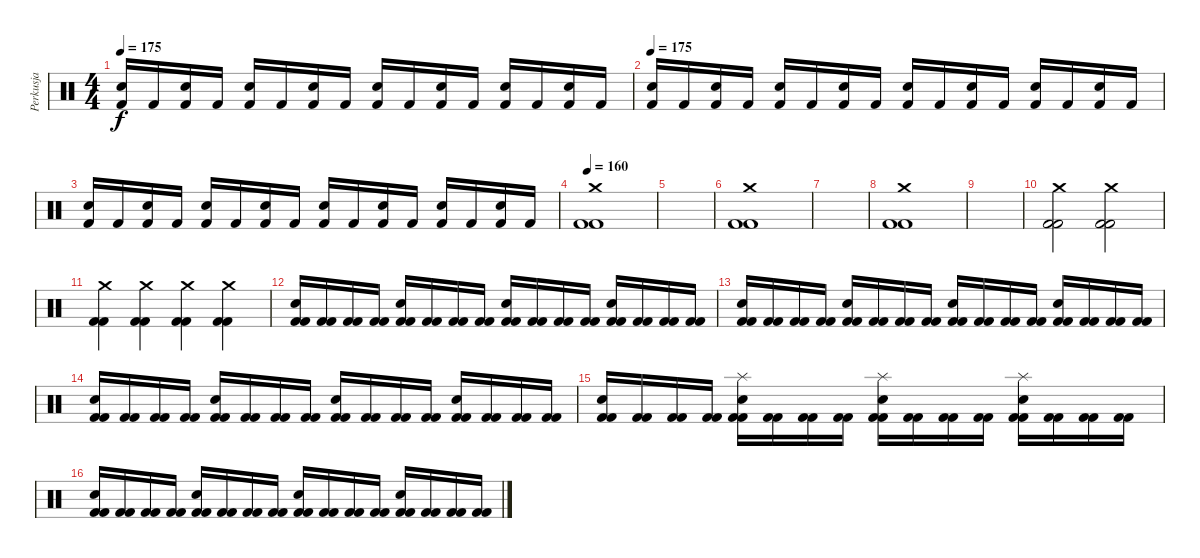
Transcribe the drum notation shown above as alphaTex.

\track ("Perkusja" "Perkusja") {instrument percussion}
\staff {score}
\articulation defaults
\ts (4 4)
\tempo 175
\clef neutral
\ks c
("Electric Snare (hit)" "Kick (hit) 2").16{dy f} "Kick (hit) 2".16 ("Snare (hit) 2" "Kick (hit) 2").16 "Kick (hit) 2".16 ("Snare (hit) 2" "Kick (hit) 2").16 "Kick (hit) 2".16 ("Snare (hit) 2" "Kick (hit) 2").16 "Kick (hit) 2".16 ("Snare (hit) 2" "Kick (hit) 2").16 "Kick (hit) 2".16 ("Snare (hit) 2" "Kick (hit) 2").16 "Kick (hit) 2".16 ("Snare (hit) 2" "Kick (hit) 2").16 "Kick (hit) 2".16 ("Snare (hit) 2" "Kick (hit) 2").16 "Kick (hit) 2".16 |
\tempo 175
("Electric Snare (hit)" "Kick (hit) 2").16 "Kick (hit) 2".16 ("Snare (hit) 2" "Kick (hit) 2").16 "Kick (hit) 2".16 ("Snare (hit) 2" "Kick (hit) 2").16 "Kick (hit) 2".16 ("Snare (hit) 2" "Kick (hit) 2").16 "Kick (hit) 2".16 ("Snare (hit) 2" "Kick (hit) 2").16 "Kick (hit) 2".16 ("Snare (hit) 2" "Kick (hit) 2").16 "Kick (hit) 2".16 ("Snare (hit) 2" "Kick (hit) 2").16 "Kick (hit) 2".16 ("Snare (hit) 2" "Kick (hit) 2").16 "Kick (hit) 2".16 |
("Snare (hit) 2" "Kick (hit) 2").16 "Kick (hit) 2".16 ("Snare (hit) 2" "Kick (hit) 2").16 "Kick (hit) 2".16 ("Snare (hit) 2" "Kick (hit) 2").16 "Kick (hit) 2".16 ("Snare (hit) 2" "Kick (hit) 2").16 "Kick (hit) 2".16 ("Snare (hit) 2" "Kick (hit) 2").16 "Kick (hit) 2".16 ("Snare (hit) 2" "Kick (hit) 2").16 "Kick (hit) 2".16 ("Snare (hit) 2" "Kick (hit) 2").16 "Kick (hit) 2".16 ("Snare (hit) 2" "Kick (hit) 2").16 "Kick (hit) 2".16 |
\tempo 160
("Crash medium (hit)" "Kick (hit) 2" "Kick (hit) 2").1 |
|
("Crash medium (hit)" "Kick (hit) 2" "Kick (hit) 2").1 |
|
("Crash medium (hit)" "Kick (hit) 2" "Kick (hit) 2").1 |
|
("Crash medium (hit)" "Kick (hit) 2" "Kick (hit) 2").2 ("Crash medium (hit)" "Kick (hit) 2" "Kick (hit) 2").2 |
("Crash medium (hit)" "Kick (hit) 2" "Kick (hit) 2").4 ("Crash medium (hit)" "Kick (hit) 2" "Kick (hit) 2").4 ("Crash medium (hit)" "Kick (hit) 2" "Kick (hit) 2").4 ("Crash medium (hit)" "Kick (hit) 2" "Kick (hit) 2").4 |
("Snare (hit) 2" "Kick (hit) 2" "Kick (hit) 2").16 ("Kick (hit) 2" "Kick (hit) 2").16 ("Kick (hit) 2" "Kick (hit) 2").16 ("Kick (hit) 2" "Kick (hit) 2").16 ("Electric Snare (hit)" "Kick (hit) 2" "Kick (hit) 2").16 ("Kick (hit) 2" "Kick (hit) 2").16 ("Kick (hit) 2" "Kick (hit) 2").16 ("Kick (hit) 2" "Kick (hit) 2").16 ("Snare (hit) 2" "Kick (hit) 2" "Kick (hit) 2").16 ("Kick (hit) 2" "Kick (hit) 2").16 ("Kick (hit) 2" "Kick (hit) 2").16 ("Kick (hit) 2" "Kick (hit) 2").16 ("Electric Snare (hit)" "Kick (hit) 2" "Kick (hit) 2").16 ("Kick (hit) 2" "Kick (hit) 2").16 ("Kick (hit) 2" "Kick (hit) 2").16 ("Kick (hit) 2" "Kick (hit) 2").16 |
("Snare (hit) 2" "Kick (hit) 2" "Kick (hit) 2").16 ("Kick (hit) 2" "Kick (hit) 2").16 ("Kick (hit) 2" "Kick (hit) 2").16 ("Kick (hit) 2" "Kick (hit) 2").16 ("Electric Snare (hit)" "Kick (hit) 2" "Kick (hit) 2").16 ("Kick (hit) 2" "Kick (hit) 2").16 ("Kick (hit) 2" "Kick (hit) 2").16 ("Kick (hit) 2" "Kick (hit) 2").16 ("Snare (hit) 2" "Kick (hit) 2" "Kick (hit) 2").16 ("Kick (hit) 2" "Kick (hit) 2").16 ("Kick (hit) 2" "Kick (hit) 2").16 ("Kick (hit) 2" "Kick (hit) 2").16 ("Electric Snare (hit)" "Kick (hit) 2" "Kick (hit) 2").16 ("Kick (hit) 2" "Kick (hit) 2").16 ("Kick (hit) 2" "Kick (hit) 2").16 ("Kick (hit) 2" "Kick (hit) 2").16 |
("Snare (hit) 2" "Kick (hit) 2" "Kick (hit) 2").16 ("Kick (hit) 2" "Kick (hit) 2").16 ("Kick (hit) 2" "Kick (hit) 2").16 ("Kick (hit) 2" "Kick (hit) 2").16 ("Electric Snare (hit)" "Kick (hit) 2" "Kick (hit) 2").16 ("Kick (hit) 2" "Kick (hit) 2").16 ("Kick (hit) 2" "Kick (hit) 2").16 ("Kick (hit) 2" "Kick (hit) 2").16 ("Snare (hit) 2" "Kick (hit) 2" "Kick (hit) 2").16 ("Kick (hit) 2" "Kick (hit) 2").16 ("Kick (hit) 2" "Kick (hit) 2").16 ("Kick (hit) 2" "Kick (hit) 2").16 ("Electric Snare (hit)" "Kick (hit) 2" "Kick (hit) 2").16 ("Kick (hit) 2" "Kick (hit) 2").16 ("Kick (hit) 2" "Kick (hit) 2").16 ("Kick (hit) 2" "Kick (hit) 2").16 |
("Snare (hit) 2" "Kick (hit) 2" "Kick (hit) 2").16 ("Kick (hit) 2" "Kick (hit) 2").16 ("Kick (hit) 2" "Kick (hit) 2").16 ("Kick (hit) 2" "Kick (hit) 2").16 ("Splash (hit)" "Electric Snare (hit)" "Kick (hit) 2" "Kick (hit) 2").16 ("Kick (hit) 2" "Kick (hit) 2").16 ("Kick (hit) 2" "Kick (hit) 2").16 ("Kick (hit) 2" "Kick (hit) 2").16 ("Splash (hit)" "Snare (hit) 2" "Kick (hit) 2" "Kick (hit) 2").16 ("Kick (hit) 2" "Kick (hit) 2").16 ("Kick (hit) 2" "Kick (hit) 2").16 ("Kick (hit) 2" "Kick (hit) 2").16 ("Splash (hit)" "Electric Snare (hit)" "Kick (hit) 2" "Kick (hit) 2").16 ("Kick (hit) 2" "Kick (hit) 2").16 ("Kick (hit) 2" "Kick (hit) 2").16 ("Kick (hit) 2" "Kick (hit) 2").16 |
("Snare (hit) 2" "Kick (hit) 2" "Kick (hit) 2").16 ("Kick (hit) 2" "Kick (hit) 2").16 ("Kick (hit) 2" "Kick (hit) 2").16 ("Kick (hit) 2" "Kick (hit) 2").16 ("Electric Snare (hit)" "Kick (hit) 2" "Kick (hit) 2").16 ("Kick (hit) 2" "Kick (hit) 2").16 ("Kick (hit) 2" "Kick (hit) 2").16 ("Kick (hit) 2" "Kick (hit) 2").16 ("Snare (hit) 2" "Kick (hit) 2" "Kick (hit) 2").16 ("Kick (hit) 2" "Kick (hit) 2").16 ("Kick (hit) 2" "Kick (hit) 2").16 ("Kick (hit) 2" "Kick (hit) 2").16 ("Electric Snare (hit)" "Kick (hit) 2" "Kick (hit) 2").16 ("Kick (hit) 2" "Kick (hit) 2").16 ("Kick (hit) 2" "Kick (hit) 2").16 ("Kick (hit) 2" "Kick (hit) 2").16
